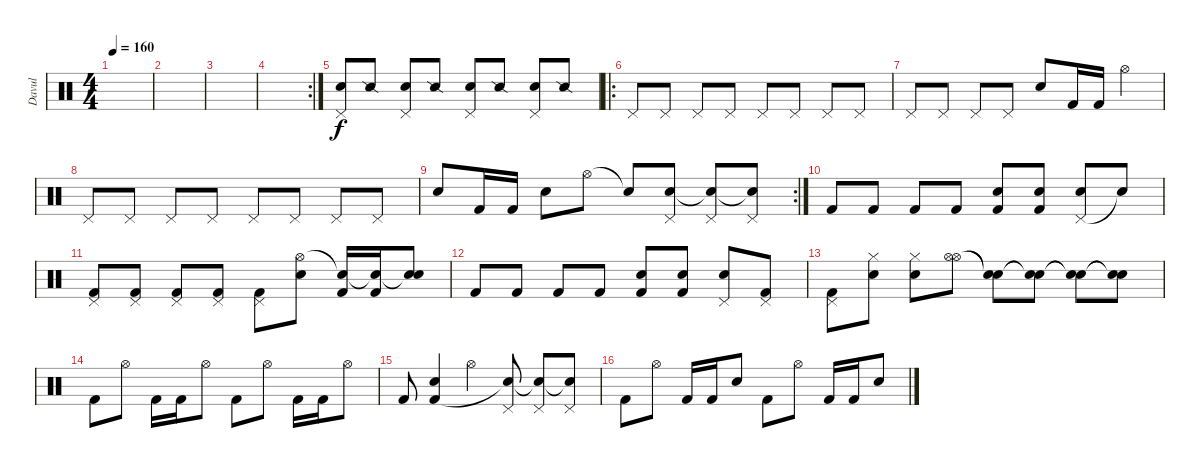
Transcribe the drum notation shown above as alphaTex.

\track ("Davul" "Davul") {instrument percussion}
\staff {score}
\articulation defaults
\ts (4 4)
\tempo 160
\clef neutral
\ks c
|
|
|
\rc 2
|
("Pedal Hi-Hat (hit)" "Snare (hit) 2").8 "Snare (side stick) 2".8 ("Pedal Hi-Hat (hit)" "Snare (hit) 2").8 "Snare (side stick) 2".8 ("Pedal Hi-Hat (hit)" "Snare (hit) 2").8 "Snare (side stick) 2".8 ("Pedal Hi-Hat (hit)" "Snare (hit) 2").8 "Snare (side stick) 2".8 |
\ro "Pedal Hi-Hat (hit)".8 "Pedal Hi-Hat (hit)".8 "Pedal Hi-Hat (hit)".8 "Pedal Hi-Hat (hit)".8 "Pedal Hi-Hat (hit)".8 "Pedal Hi-Hat (hit)".8 "Pedal Hi-Hat (hit)".8 "Pedal Hi-Hat (hit)".8
|
"Pedal Hi-Hat (hit)".8 "Pedal Hi-Hat (hit)".8 "Pedal Hi-Hat (hit)".8 "Pedal Hi-Hat (hit)".8 "Snare (hit) 2".8 "Kick (hit) 2".16 "Kick (hit) 2".16 "Hi-Hat (open)".4 |
"Pedal Hi-Hat (hit)".8 "Pedal Hi-Hat (hit)".8 "Pedal Hi-Hat (hit)".8 "Pedal Hi-Hat (hit)".8 "Pedal Hi-Hat (hit)".8 "Pedal Hi-Hat (hit)".8 "Pedal Hi-Hat (hit)".8 "Pedal Hi-Hat (hit)".8 |
\rc 2 "Snare (hit) 2".8 "Kick (hit) 2".16 "Kick (hit) 2".16 "Snare (hit) 2".8 "Hi-Hat (open)".8 "Snare (hit)"{t}.8
("Pedal Hi-Hat (hit)" "Snare (hit)").8 ("Pedal Hi-Hat (hit)" "Snare (hit)"{t}).8 ("Pedal Hi-Hat (hit)" "Snare (hit)"{t}).8 |
"Kick (hit) 2".8 "Kick (hit) 2".8 "Kick (hit) 2".8 "Kick (hit) 2".8 ("Snare (hit) 2" "Kick (hit) 2").8 ("Snare (hit) 2" "Kick (hit) 2").8 ("Pedal Hi-Hat (hit)" "Snare (hit) 2").8 "Snare (hit)"{t}.8 |
("Pedal Hi-Hat (hit)" "Kick (hit) 2").8 ("Pedal Hi-Hat (hit)" "Kick (hit) 2").8 ("Pedal Hi-Hat (hit)" "Kick (hit) 2").8 ("Pedal Hi-Hat (hit)" "Kick (hit) 2").8 ("Pedal Hi-Hat (hit)" "Kick (hit) 2").8 ("Snare (hit) 2" "Hi-Hat (open)").8 ("Kick (hit) 2" "Snare (hit)"{t}).16 ("Kick (hit) 2" "Snare (hit)"{t}).16 ("Snare (hit) 2" "Snare (hit)"{t}).8 |
"Kick (hit) 2".8 "Kick (hit) 2".8 "Kick (hit) 2".8 "Kick (hit) 2".8 ("Snare (hit) 2" "Kick (hit) 2").8 ("Snare (hit) 2" "Kick (hit) 2").8 ("Pedal Hi-Hat (hit)" "Snare (hit) 2").8 ("Pedal Hi-Hat (hit)" "Kick (hit) 2").8 |
("Pedal Hi-Hat (hit)" "Kick (hit) 2").8 ("Hi-Hat (closed)" "Metronome (bell)").8 ("Hi-Hat (closed)" "Metronome (bell)").8 ("Hi-Hat (open)" "Hi-Hat (open)").8 ("Snare (hit)"{t} "Snare (hit)"{t}).8 ("Snare (hit)"{t} "Snare (hit)"{t}).8 ("Snare (hit)"{t} "Snare (hit)"{t}).8 ("Snare (hit)"{t} "Snare (hit)"{t}).8 |
"Kick (hit) 2".8 "Hi-Hat (open)".8 "Kick (hit) 2".16 "Kick (hit) 2".16 "Hi-Hat (open)".8 "Kick (hit) 2".8 "Hi-Hat (open)".8 "Kick (hit) 2".16 "Kick (hit) 2".16 "Hi-Hat (open)".8 |
"Kick (hit) 2".8 ("Snare (hit) 2" "Kick (hit) 2").4 "Hi-Hat (open)".4 ("Pedal Hi-Hat (hit)" "Snare (hit)"{t}).8 ("Pedal Hi-Hat (hit)" "Snare (hit)"{t}).8 ("Pedal Hi-Hat (hit)" "Snare (hit)"{t}).8 |
"Kick (hit) 2".8 "Hi-Hat (open)".8 "Kick (hit) 2".16 "Kick (hit) 2".16 "Snare (hit) 2".8 "Kick (hit) 2".8 "Hi-Hat (open)".8 "Kick (hit) 2".16 "Kick (hit) 2".16 "Snare (hit) 2".8
